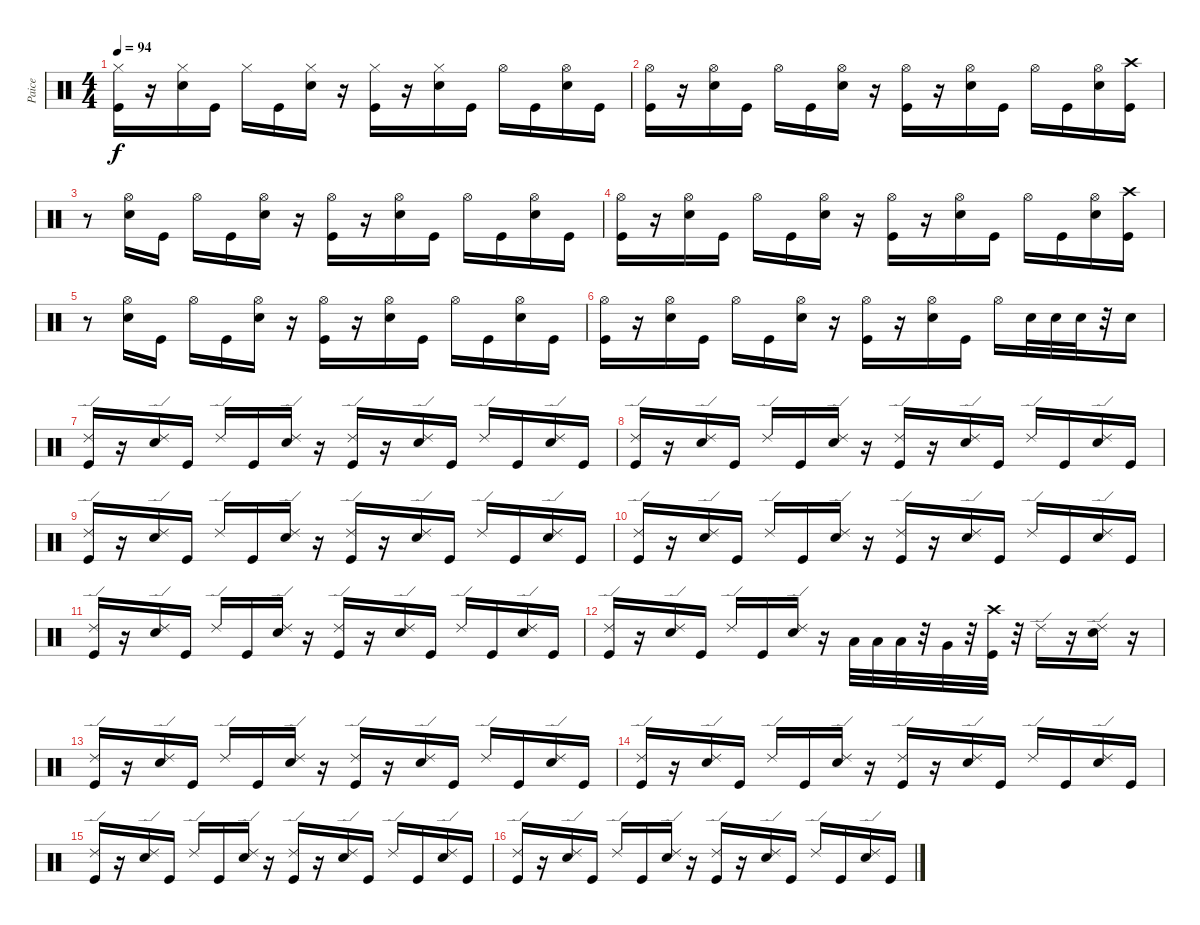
\track ("Paice" "Paice") {instrument percussion}
\staff {score}
\articulation defaults
\ts (4 4)
\tempo 94
\clef neutral
\ks c
("Hi-Hat (closed)" "Kick (hit)").16{dy f} r.16 ("Hi-Hat (closed)" "Snare (hit) 2").16 "Kick (hit)".16 "Hi-Hat (closed)".16 "Kick (hit)".16 ("Hi-Hat (closed)" "Snare (hit) 2").16 r.16 ("Hi-Hat (closed)" "Kick (hit)").16 r.16 ("Hi-Hat (closed)" "Snare (hit) 2").16 "Kick (hit)".16 "Hi-Hat (open)".16 "Kick (hit)".16 ("Hi-Hat (open)" "Snare (hit) 2").16 "Kick (hit)".16 |
("Hi-Hat (open)" "Kick (hit)").16 r.16 ("Hi-Hat (open)" "Snare (hit) 2").16 "Kick (hit)".16 "Hi-Hat (open)".16 "Kick (hit)".16 ("Hi-Hat (open)" "Snare (hit) 2").16 r.16 ("Hi-Hat (open)" "Kick (hit)").16 r.16 ("Hi-Hat (open)" "Snare (hit) 2").16 "Kick (hit)".16 "Hi-Hat (open)".16 "Kick (hit)".16 ("Hi-Hat (open)" "Snare (hit) 2").16 ("Crash high (hit)" "Kick (hit)").16 |
r.8 ("Hi-Hat (open)" "Snare (hit) 2").16 "Kick (hit)".16 "Hi-Hat (open)".16 "Kick (hit)".16 ("Hi-Hat (open)" "Snare (hit) 2").16 r.16 ("Hi-Hat (open)" "Kick (hit)").16 r.16 ("Hi-Hat (open)" "Snare (hit) 2").16 "Kick (hit)".16 "Hi-Hat (open)".16 "Kick (hit)".16 ("Hi-Hat (open)" "Snare (hit) 2").16 "Kick (hit)".16 |
("Hi-Hat (open)" "Kick (hit)").16 r.16 ("Hi-Hat (open)" "Snare (hit) 2").16 "Kick (hit)".16 "Hi-Hat (open)".16 "Kick (hit)".16 ("Hi-Hat (open)" "Snare (hit) 2").16 r.16 ("Hi-Hat (open)" "Kick (hit)").16 r.16 ("Hi-Hat (open)" "Snare (hit) 2").16 "Kick (hit)".16 "Hi-Hat (open)".16 "Kick (hit)".16 ("Hi-Hat (open)" "Snare (hit) 2").16 ("Crash high (hit)" "Kick (hit)").16 |
r.8 ("Hi-Hat (open)" "Snare (hit) 2").16 "Kick (hit)".16 "Hi-Hat (open)".16 "Kick (hit)".16 ("Hi-Hat (open)" "Snare (hit) 2").16 r.16 ("Hi-Hat (open)" "Kick (hit)").16 r.16 ("Hi-Hat (open)" "Snare (hit) 2").16 "Kick (hit)".16 "Hi-Hat (open)".16 "Kick (hit)".16 ("Hi-Hat (open)" "Snare (hit) 2").16 "Kick (hit)".16 |
("Hi-Hat (open)" "Kick (hit)").16 r.16 ("Hi-Hat (open)" "Snare (hit) 2").16 "Kick (hit)".16 "Hi-Hat (open)".16 "Kick (hit)".16 ("Hi-Hat (open)" "Snare (hit) 2").16 r.16 ("Hi-Hat (open)" "Kick (hit)").16 r.16 ("Hi-Hat (open)" "Snare (hit) 2").16 "Kick (hit)".16 "Hi-Hat (open)".16 "Snare (hit) 2".32 "Snare (hit) 2".32 "Snare (hit) 2".32 r.32 "Snare (hit) 2".16 |
("Ride (edge) 2" "Kick (hit)").16 r.16 ("Ride (edge) 2" "Snare (hit) 2").16 "Kick (hit)".16 "Ride (edge) 2".16 "Kick (hit)".16 ("Ride (edge) 2" "Snare (hit) 2").16 r.16 ("Ride (edge) 2" "Kick (hit)").16 r.16 ("Ride (edge) 2" "Snare (hit) 2").16 "Kick (hit)".16 "Ride (edge) 2".16 "Kick (hit)".16 ("Ride (edge) 2" "Snare (hit) 2").16 "Kick (hit)".16 |
("Ride (edge) 2" "Kick (hit)").16 r.16 ("Ride (edge) 2" "Snare (hit) 2").16 "Kick (hit)".16 "Ride (edge) 2".16 "Kick (hit)".16 ("Ride (edge) 2" "Snare (hit) 2").16 r.16 ("Ride (edge) 2" "Kick (hit)").16 r.16 ("Ride (edge) 2" "Snare (hit) 2").16 "Kick (hit)".16 "Ride (edge) 2".16 "Kick (hit)".16 ("Ride (edge) 2" "Snare (hit) 2").16 "Kick (hit)".16 |
("Ride (edge) 2" "Kick (hit)").16 r.16 ("Ride (edge) 2" "Snare (hit) 2").16 "Kick (hit)".16 "Ride (edge) 2".16 "Kick (hit)".16 ("Ride (edge) 2" "Snare (hit) 2").16 r.16 ("Ride (edge) 2" "Kick (hit)").16 r.16 ("Ride (edge) 2" "Snare (hit) 2").16 "Kick (hit)".16 "Ride (edge) 2".16 "Kick (hit)".16 ("Ride (edge) 2" "Snare (hit) 2").16 "Kick (hit)".16 |
("Ride (edge) 2" "Kick (hit)").16 r.16 ("Ride (edge) 2" "Snare (hit) 2").16 "Kick (hit)".16 "Ride (edge) 2".16 "Kick (hit)".16 ("Ride (edge) 2" "Snare (hit) 2").16 r.16 ("Ride (edge) 2" "Kick (hit)").16 r.16 ("Ride (edge) 2" "Snare (hit) 2").16 "Kick (hit)".16 "Ride (edge) 2".16 "Kick (hit)".16 ("Ride (edge) 2" "Snare (hit) 2").16 "Kick (hit)".16 |
("Ride (edge) 2" "Kick (hit)").16 r.16 ("Ride (edge) 2" "Snare (hit) 2").16 "Kick (hit)".16 "Ride (edge) 2".16 "Kick (hit)".16 ("Ride (edge) 2" "Snare (hit) 2").16 r.16 ("Ride (edge) 2" "Kick (hit)").16 r.16 ("Ride (edge) 2" "Snare (hit) 2").16 "Kick (hit)".16 "Ride (edge) 2".16 "Kick (hit)".16 ("Ride (edge) 2" "Snare (hit) 2").16 "Kick (hit)".16 |
("Ride (edge) 2" "Kick (hit)").16 r.16 ("Ride (edge) 2" "Snare (hit) 2").16 "Kick (hit)".16 "Ride (edge) 2".16 "Kick (hit)".16 ("Ride (edge) 2" "Snare (hit) 2").16 r.16 "Low Tom (hit)".32 "Low Tom (hit)".32 "Low Tom (hit)".32 r.32 "Very Low Tom (hit)".32 r.32 ("Crash high (hit)" "Kick (hit)").32 r.32 "Ride (edge) 2".16 r.16 ("Ride (edge) 2" "Snare (hit) 2").16 r.16 |
("Ride (edge) 2" "Kick (hit)").16 r.16 ("Ride (edge) 2" "Snare (hit) 2").16 "Kick (hit)".16 "Ride (edge) 2".16 "Kick (hit)".16 ("Ride (edge) 2" "Snare (hit) 2").16 r.16 ("Ride (edge) 2" "Kick (hit)").16 r.16 ("Ride (edge) 2" "Snare (hit) 2").16 "Kick (hit)".16 "Ride (edge) 2".16 "Kick (hit)".16 ("Ride (edge) 2" "Snare (hit) 2").16 "Kick (hit)".16 |
("Ride (edge) 2" "Kick (hit)").16 r.16 ("Ride (edge) 2" "Snare (hit) 2").16 "Kick (hit)".16 "Ride (edge) 2".16 "Kick (hit)".16 ("Ride (edge) 2" "Snare (hit) 2").16 r.16 ("Ride (edge) 2" "Kick (hit)").16 r.16 ("Ride (edge) 2" "Snare (hit) 2").16 "Kick (hit)".16 "Ride (edge) 2".16 "Kick (hit)".16 ("Ride (edge) 2" "Snare (hit) 2").16 "Kick (hit)".16 |
("Ride (edge) 2" "Kick (hit)").16 r.16 ("Ride (edge) 2" "Snare (hit) 2").16 "Kick (hit)".16 "Ride (edge) 2".16 "Kick (hit)".16 ("Ride (edge) 2" "Snare (hit) 2").16 r.16 ("Ride (edge) 2" "Kick (hit)").16 r.16 ("Ride (edge) 2" "Snare (hit) 2").16 "Kick (hit)".16 "Ride (edge) 2".16 "Kick (hit)".16 ("Ride (edge) 2" "Snare (hit) 2").16 "Kick (hit)".16 |
("Ride (edge) 2" "Kick (hit)").16 r.16 ("Ride (edge) 2" "Snare (hit) 2").16 "Kick (hit)".16 "Ride (edge) 2".16 "Kick (hit)".16 ("Ride (edge) 2" "Snare (hit) 2").16 r.16 ("Ride (edge) 2" "Kick (hit)").16 r.16 ("Ride (edge) 2" "Snare (hit) 2").16 "Kick (hit)".16 "Ride (edge) 2".16 "Kick (hit)".16 ("Ride (edge) 2" "Snare (hit) 2").16 "Kick (hit)".16
